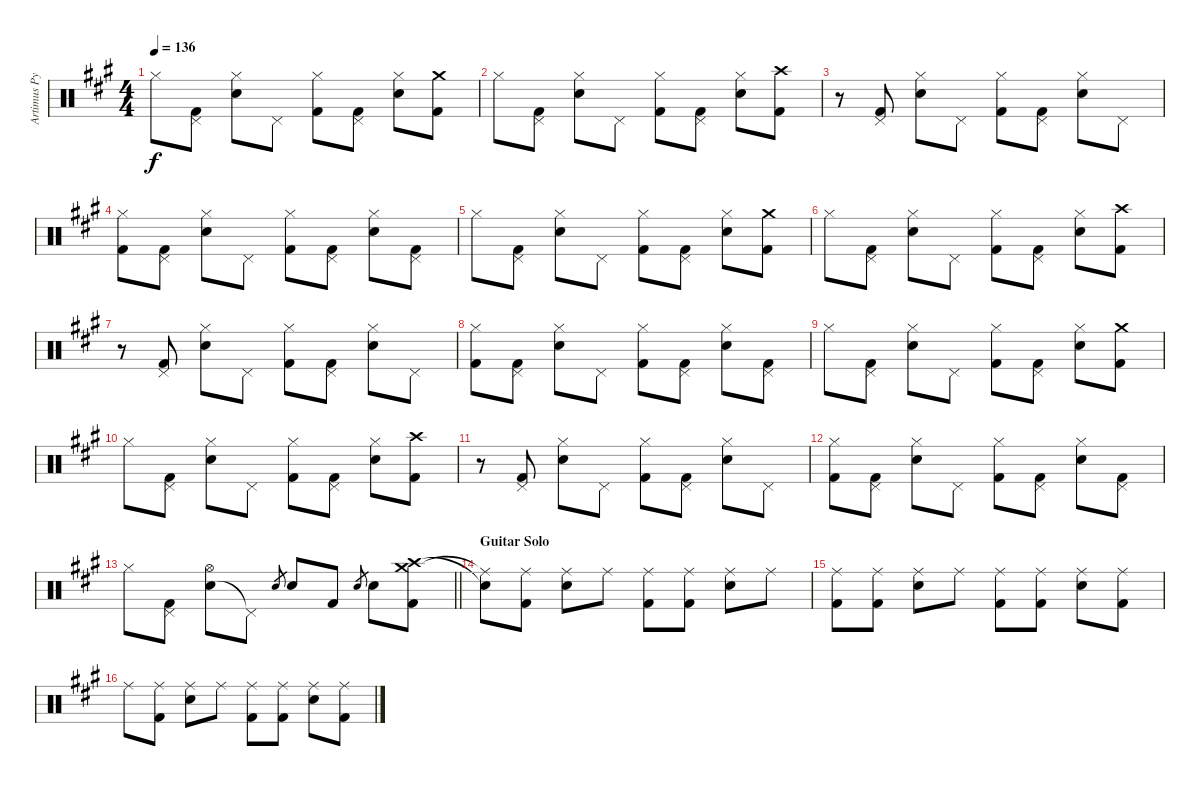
\track ("Artimus Pyle - Drums" "Artimus Py") {instrument percussion}
\staff {score}
\articulation defaults
\ts (4 4)
\tempo 136
\clef neutral
\ks a "Hi-Hat (closed)".8{dy f}
("Pedal Hi-Hat (hit)" "Kick (hit) 2").8 ("Snare (hit) 2" "Hi-Hat (closed)").8 "Pedal Hi-Hat (hit)".8 ("Hi-Hat (closed)" "Kick (hit) 2").8 ("Pedal Hi-Hat (hit)" "Kick (hit) 2").8 ("Snare (hit) 2" "Hi-Hat (closed)").8 ("Crash medium (hit)" "Kick (hit) 2").8 |
"Hi-Hat (closed)".8 ("Pedal Hi-Hat (hit)" "Kick (hit) 2").8 ("Snare (hit) 2" "Hi-Hat (closed)").8 "Pedal Hi-Hat (hit)".8 ("Hi-Hat (closed)" "Kick (hit) 2").8 ("Pedal Hi-Hat (hit)" "Kick (hit) 2").8 ("Snare (hit) 2" "Hi-Hat (closed)").8 ("Crash high (hit)" "Kick (hit) 2").8 |
r.8 ("Pedal Hi-Hat (hit)" "Kick (hit) 2").8 ("Snare (hit) 2" "Hi-Hat (closed)").8 "Pedal Hi-Hat (hit)".8 ("Hi-Hat (closed)" "Kick (hit) 2").8 ("Pedal Hi-Hat (hit)" "Kick (hit) 2").8 ("Snare (hit) 2" "Hi-Hat (closed)").8 "Pedal Hi-Hat (hit)".8 |
("Hi-Hat (closed)" "Kick (hit) 2").8 ("Pedal Hi-Hat (hit)" "Kick (hit) 2").8 ("Snare (hit) 2" "Hi-Hat (closed)").8 "Pedal Hi-Hat (hit)".8 ("Hi-Hat (closed)" "Kick (hit) 2").8 ("Pedal Hi-Hat (hit)" "Kick (hit) 2").8 ("Snare (hit) 2" "Hi-Hat (closed)").8 ("Pedal Hi-Hat (hit)" "Kick (hit) 2").8 |
"Hi-Hat (closed)".8 ("Pedal Hi-Hat (hit)" "Kick (hit) 2").8 ("Snare (hit) 2" "Hi-Hat (closed)").8 "Pedal Hi-Hat (hit)".8 ("Hi-Hat (closed)" "Kick (hit) 2").8 ("Pedal Hi-Hat (hit)" "Kick (hit) 2").8 ("Snare (hit) 2" "Hi-Hat (closed)").8 ("Crash medium (hit)" "Kick (hit) 2").8 |
"Hi-Hat (closed)".8 ("Pedal Hi-Hat (hit)" "Kick (hit) 2").8 ("Snare (hit) 2" "Hi-Hat (closed)").8 "Pedal Hi-Hat (hit)".8 ("Hi-Hat (closed)" "Kick (hit) 2").8 ("Pedal Hi-Hat (hit)" "Kick (hit) 2").8 ("Snare (hit) 2" "Hi-Hat (closed)").8 ("Crash high (hit)" "Kick (hit) 2").8 |
r.8 ("Pedal Hi-Hat (hit)" "Kick (hit) 2").8 ("Snare (hit) 2" "Hi-Hat (closed)").8 "Pedal Hi-Hat (hit)".8 ("Hi-Hat (closed)" "Kick (hit) 2").8 ("Pedal Hi-Hat (hit)" "Kick (hit) 2").8 ("Snare (hit) 2" "Hi-Hat (closed)").8 "Pedal Hi-Hat (hit)".8 |
("Hi-Hat (closed)" "Kick (hit) 2").8 ("Pedal Hi-Hat (hit)" "Kick (hit) 2").8 ("Snare (hit) 2" "Hi-Hat (closed)").8 "Pedal Hi-Hat (hit)".8 ("Hi-Hat (closed)" "Kick (hit) 2").8 ("Pedal Hi-Hat (hit)" "Kick (hit) 2").8 ("Snare (hit) 2" "Hi-Hat (closed)").8 ("Pedal Hi-Hat (hit)" "Kick (hit) 2").8 |
"Hi-Hat (closed)".8 ("Pedal Hi-Hat (hit)" "Kick (hit) 2").8 ("Snare (hit) 2" "Hi-Hat (closed)").8 "Pedal Hi-Hat (hit)".8 ("Hi-Hat (closed)" "Kick (hit) 2").8 ("Pedal Hi-Hat (hit)" "Kick (hit) 2").8 ("Snare (hit) 2" "Hi-Hat (closed)").8 ("Crash medium (hit)" "Kick (hit) 2").8 |
"Hi-Hat (closed)".8 ("Pedal Hi-Hat (hit)" "Kick (hit) 2").8 ("Snare (hit) 2" "Hi-Hat (closed)").8 "Pedal Hi-Hat (hit)".8 ("Hi-Hat (closed)" "Kick (hit) 2").8 ("Pedal Hi-Hat (hit)" "Kick (hit) 2").8 ("Snare (hit) 2" "Hi-Hat (closed)").8 ("Crash high (hit)" "Kick (hit) 2").8 |
r.8 ("Pedal Hi-Hat (hit)" "Kick (hit) 2").8 ("Snare (hit) 2" "Hi-Hat (closed)").8 "Pedal Hi-Hat (hit)".8 ("Hi-Hat (closed)" "Kick (hit) 2").8 ("Pedal Hi-Hat (hit)" "Kick (hit) 2").8 ("Snare (hit) 2" "Hi-Hat (closed)").8 "Pedal Hi-Hat (hit)".8 |
("Hi-Hat (closed)" "Kick (hit) 2").8 ("Pedal Hi-Hat (hit)" "Kick (hit) 2").8 ("Snare (hit) 2" "Hi-Hat (closed)").8 "Pedal Hi-Hat (hit)".8 ("Hi-Hat (closed)" "Kick (hit) 2").8 ("Pedal Hi-Hat (hit)" "Kick (hit) 2").8 ("Snare (hit) 2" "Hi-Hat (closed)").8 ("Pedal Hi-Hat (hit)" "Kick (hit) 2").8 |
\barLineRight lightlight "Hi-Hat (closed)".8
("Pedal Hi-Hat (hit)" "Kick (hit) 2").8 ("Snare (hit) 2" "Hi-Hat (open)").8 "Pedal Hi-Hat (hit)"{t}.8 "Snare (hit) 2".8{gr} "Snare (hit) 2".8 "Kick (hit) 2".8 "Snare (hit) 2".8{gr} "Snare (hit) 2".8 ("Crash medium (hit)" "Crash high (hit)" "Kick (hit) 2").8 |
\section ("" "Guitar Solo")
("Ride (middle)"{t} "Snare (hit)"{t}).8 ("Ride (middle)" "Kick (hit) 2").8 ("Ride (middle)" "Snare (hit) 2").8 "Ride (middle)".8 ("Ride (middle)" "Kick (hit) 2").8 ("Ride (middle)" "Kick (hit) 2").8 ("Ride (middle)" "Snare (hit) 2").8 "Ride (middle)".8 |
("Ride (middle)" "Kick (hit) 2").8 ("Ride (middle)" "Kick (hit) 2").8 ("Ride (middle)" "Snare (hit) 2").8 "Ride (middle)".8 ("Ride (middle)" "Kick (hit) 2").8 ("Ride (middle)" "Kick (hit) 2").8 ("Ride (middle)" "Snare (hit) 2").8 ("Ride (middle)" "Kick (hit) 2").8 |
"Ride (middle)".8 ("Ride (middle)" "Kick (hit) 2").8 ("Ride (middle)" "Snare (hit) 2").8 "Ride (middle)".8 ("Ride (middle)" "Kick (hit) 2").8 ("Ride (middle)" "Kick (hit) 2").8 ("Ride (middle)" "Snare (hit) 2").8 ("Ride (middle)" "Kick (hit) 2").8
